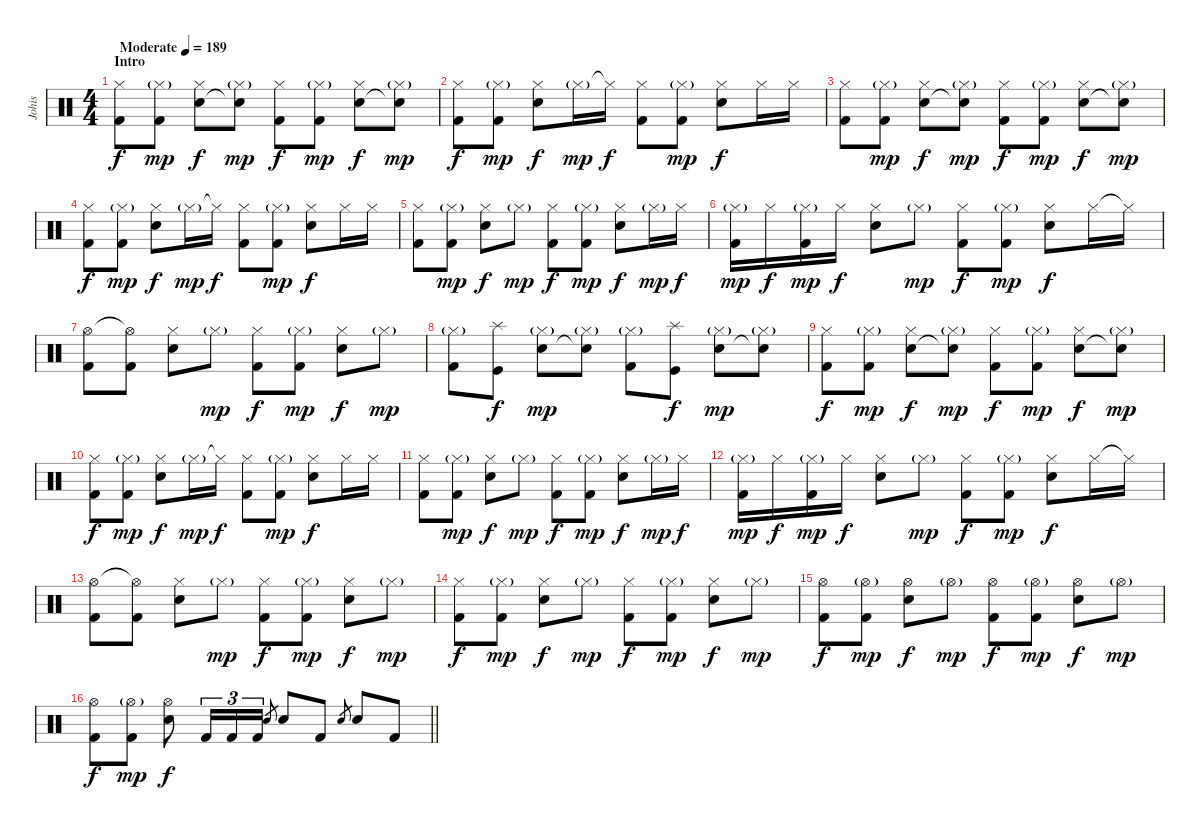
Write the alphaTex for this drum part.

\track ("Johis" "Johis") {instrument percussion}
\staff {score}
\articulation defaults
\ts (4 4)
\section ("" "Intro")
\tempo (189 "Moderate")
\clef neutral
\ks c
("Hi-Hat (closed)" "Kick (hit) 2").8{dy f} ("Hi-Hat (closed)"{g} "Kick (hit) 2").8{dy mp} ("Hi-Hat (closed)" "Electric Snare (hit)").8{dy f} ("Hi-Hat (closed)"{g} "Snare (hit)"{t}).8{dy mp} ("Hi-Hat (closed)" "Kick (hit) 2").8{dy f} ("Hi-Hat (closed)"{g} "Kick (hit) 2").8{dy mp} ("Hi-Hat (closed)" "Electric Snare (hit)").8{dy f} ("Hi-Hat (closed)"{g} "Snare (hit)"{t}).8{dy mp} |
("Hi-Hat (closed)" "Kick (hit) 2").8{dy f} ("Hi-Hat (closed)"{g} "Kick (hit) 2").8{dy mp} ("Hi-Hat (closed)" "Electric Snare (hit)").8{dy f} "Hi-Hat (closed)"{g}.16{dy mp} "Hi-Hat (closed)"{t}.16{dy f} ("Hi-Hat (closed)" "Kick (hit) 2").8 ("Hi-Hat (closed)"{g} "Kick (hit) 2").8{dy mp} ("Hi-Hat (closed)" "Electric Snare (hit)").8{dy f} "Hi-Hat (closed)".16 "Hi-Hat (closed)".16 |
("Hi-Hat (closed)" "Kick (hit) 2").8 ("Hi-Hat (closed)"{g} "Kick (hit) 2").8{dy mp} ("Hi-Hat (closed)" "Electric Snare (hit)").8{dy f} ("Hi-Hat (closed)"{g} "Snare (hit)"{t}).8{dy mp} ("Hi-Hat (closed)" "Kick (hit) 2").8{dy f} ("Hi-Hat (closed)"{g} "Kick (hit) 2").8{dy mp} ("Hi-Hat (closed)" "Electric Snare (hit)").8{dy f} ("Hi-Hat (closed)"{g} "Snare (hit)"{t}).8{dy mp} |
("Hi-Hat (closed)" "Kick (hit) 2").8{dy f} ("Hi-Hat (closed)"{g} "Kick (hit) 2").8{dy mp} ("Hi-Hat (closed)" "Electric Snare (hit)").8{dy f} "Hi-Hat (closed)"{g}.16{dy mp} "Hi-Hat (closed)"{t}.16{dy f} ("Hi-Hat (closed)" "Kick (hit) 2").8 ("Hi-Hat (closed)"{g} "Kick (hit) 2").8{dy mp} ("Hi-Hat (closed)" "Electric Snare (hit)").8{dy f} "Hi-Hat (closed)".16 "Hi-Hat (closed)".16 |
("Hi-Hat (closed)" "Kick (hit) 2").8 ("Hi-Hat (closed)"{g} "Kick (hit) 2").8{dy mp} ("Hi-Hat (closed)" "Electric Snare (hit)").8{dy f} "Hi-Hat (closed)"{g}.8{dy mp} ("Hi-Hat (closed)" "Kick (hit) 2").8{dy f} ("Hi-Hat (closed)"{g} "Kick (hit) 2").8{dy mp} ("Hi-Hat (closed)" "Electric Snare (hit)").8{dy f} "Hi-Hat (closed)"{g}.16{dy mp} "Hi-Hat (closed)".16{dy f} |
("Hi-Hat (closed)"{g} "Kick (hit) 2").16{dy mp} "Hi-Hat (closed)".16{dy f} ("Hi-Hat (closed)"{g} "Kick (hit) 2").16{dy mp} "Hi-Hat (closed)".16{dy f} ("Hi-Hat (closed)" "Electric Snare (hit)").8 "Hi-Hat (closed)"{g}.8{dy mp} ("Hi-Hat (closed)" "Kick (hit) 2").8{dy f} ("Hi-Hat (closed)"{g} "Kick (hit) 2").8{dy mp} ("Hi-Hat (closed)" "Electric Snare (hit)").8{dy f} "Hi-Hat (closed)".16 "Hi-Hat (closed)"{t}.16 |
("Hi-Hat (open)" "Kick (hit) 2").8 ("Hi-Hat (open)"{t} "Kick (hit) 2").8 ("Hi-Hat (closed)" "Electric Snare (hit)").8 "Hi-Hat (closed)"{g}.8{dy mp} ("Hi-Hat (closed)" "Kick (hit) 2").8{dy f} ("Hi-Hat (closed)"{g} "Kick (hit) 2").8{dy mp} ("Hi-Hat (closed)" "Electric Snare (hit)").8{dy f} "Hi-Hat (closed)"{g}.8{dy mp} |
("Hi-Hat (closed)"{g} "Kick (hit) 2").8 ("Splash (hit)" "Kick (hit)").8{dy f} ("Hi-Hat (closed)"{g} "Electric Snare (hit)").8{dy mp} ("Hi-Hat (closed)"{g} "Snare (hit)"{t}).8 ("Hi-Hat (closed)"{g} "Kick (hit) 2").8 ("Splash (hit)" "Kick (hit)").8{dy f} ("Hi-Hat (closed)"{g} "Electric Snare (hit)").8{dy mp} ("Hi-Hat (closed)"{g} "Snare (hit)"{t}).8 |
("Hi-Hat (closed)" "Kick (hit) 2").8{dy f} ("Hi-Hat (closed)"{g} "Kick (hit) 2").8{dy mp} ("Hi-Hat (closed)" "Electric Snare (hit)").8{dy f} ("Hi-Hat (closed)"{g} "Snare (hit)"{t}).8{dy mp} ("Hi-Hat (closed)" "Kick (hit) 2").8{dy f} ("Hi-Hat (closed)"{g} "Kick (hit) 2").8{dy mp} ("Hi-Hat (closed)" "Electric Snare (hit)").8{dy f} ("Hi-Hat (closed)"{g} "Snare (hit)"{t}).8{dy mp} |
("Hi-Hat (closed)" "Kick (hit) 2").8{dy f} ("Hi-Hat (closed)"{g} "Kick (hit) 2").8{dy mp} ("Hi-Hat (closed)" "Electric Snare (hit)").8{dy f} "Hi-Hat (closed)"{g}.16{dy mp} "Hi-Hat (closed)"{t}.16{dy f} ("Hi-Hat (closed)" "Kick (hit) 2").8 ("Hi-Hat (closed)"{g} "Kick (hit) 2").8{dy mp} ("Hi-Hat (closed)" "Electric Snare (hit)").8{dy f} "Hi-Hat (closed)".16 "Hi-Hat (closed)".16 |
("Hi-Hat (closed)" "Kick (hit) 2").8 ("Hi-Hat (closed)"{g} "Kick (hit) 2").8{dy mp} ("Hi-Hat (closed)" "Electric Snare (hit)").8{dy f} "Hi-Hat (closed)"{g}.8{dy mp} ("Hi-Hat (closed)" "Kick (hit) 2").8{dy f} ("Hi-Hat (closed)"{g} "Kick (hit) 2").8{dy mp} ("Hi-Hat (closed)" "Electric Snare (hit)").8{dy f} "Hi-Hat (closed)"{g}.16{dy mp} "Hi-Hat (closed)".16{dy f} |
("Hi-Hat (closed)"{g} "Kick (hit) 2").16{dy mp} "Hi-Hat (closed)".16{dy f} ("Hi-Hat (closed)"{g} "Kick (hit) 2").16{dy mp} "Hi-Hat (closed)".16{dy f} ("Hi-Hat (closed)" "Electric Snare (hit)").8 "Hi-Hat (closed)"{g}.8{dy mp} ("Hi-Hat (closed)" "Kick (hit) 2").8{dy f} ("Hi-Hat (closed)"{g} "Kick (hit) 2").8{dy mp} ("Hi-Hat (closed)" "Electric Snare (hit)").8{dy f} "Hi-Hat (closed)".16 "Hi-Hat (closed)"{t}.16 |
("Hi-Hat (open)" "Kick (hit) 2").8 ("Hi-Hat (open)"{t} "Kick (hit) 2").8 ("Hi-Hat (closed)" "Electric Snare (hit)").8 "Hi-Hat (closed)"{g}.8{dy mp} ("Hi-Hat (closed)" "Kick (hit) 2").8{dy f} ("Hi-Hat (closed)"{g} "Kick (hit) 2").8{dy mp} ("Hi-Hat (closed)" "Electric Snare (hit)").8{dy f} "Hi-Hat (closed)"{g}.8{dy mp} |
("Hi-Hat (closed)" "Kick (hit) 2").8{dy f} ("Hi-Hat (closed)"{g} "Kick (hit) 2").8{dy mp} ("Hi-Hat (closed)" "Electric Snare (hit)").8{dy f} "Hi-Hat (closed)"{g}.8{dy mp} ("Hi-Hat (closed)" "Kick (hit) 2").8{dy f} ("Hi-Hat (closed)"{g} "Kick (hit) 2").8{dy mp} ("Hi-Hat (closed)" "Electric Snare (hit)").8{dy f} "Hi-Hat (closed)"{g}.8{dy mp} |
("Hi-Hat (open)" "Kick (hit) 2").8{dy f} ("Hi-Hat (open)"{g} "Kick (hit) 2").8{dy mp} ("Hi-Hat (open)" "Electric Snare (hit)").8{dy f} "Hi-Hat (open)"{g}.8{dy mp} ("Hi-Hat (open)" "Kick (hit) 2").8{dy f} ("Hi-Hat (open)"{g} "Kick (hit) 2").8{dy mp} ("Hi-Hat (open)" "Electric Snare (hit)").8{dy f} "Hi-Hat (open)"{g}.8{dy mp} |
\barLineRight lightlight
("Hi-Hat (open)" "Kick (hit) 2").8{dy f} ("Hi-Hat (open)"{g} "Kick (hit) 2").8{dy mp} ("Hi-Hat (open)" "Electric Snare (hit)").8{dy f} "Kick (hit) 2".16{tu (3 2)} "Kick (hit) 2".16{tu (3 2)} "Kick (hit) 2".16{tu (3 2)} "Electric Snare (hit)".8{gr} "Electric Snare (hit)".8 "Kick (hit) 2".8 "Electric Snare (hit)".8{gr} "Electric Snare (hit)".8 "Kick (hit) 2".8
